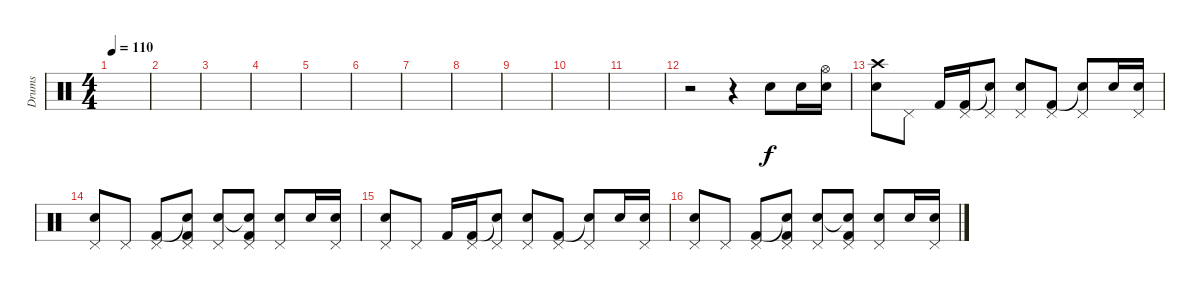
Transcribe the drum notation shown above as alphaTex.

\track ("Drums" "Drums") {instrument percussion}
\staff {score}
\articulation defaults
\ts (4 4)
\tempo 110
\clef neutral
\ks c
|
|
|
|
|
|
|
|
|
|
|
r.2 r.4 "Snare (hit) 2".8 "Snare (hit) 2".16 ("Snare (hit) 2" "Hi-Hat (open)").16 |
("Snare (hit) 2" "Crash high (hit)").8 "Pedal Hi-Hat (hit)".8 "Kick (hit) 2".16 ("Pedal Hi-Hat (hit)" "Kick (hit) 2").16 ("Pedal Hi-Hat (hit)" "Snare (hit)"{t}).8 ("Pedal Hi-Hat (hit)" "Snare (hit) 2").8 ("Pedal Hi-Hat (hit)" "Kick (hit) 2").8 ("Pedal Hi-Hat (hit)" "Snare (hit)"{t}).8 "Snare (hit) 2".16 ("Pedal Hi-Hat (hit)" "Snare (hit) 2").16 |
("Pedal Hi-Hat (hit)" "Snare (hit) 2").8 "Pedal Hi-Hat (hit)".8 ("Pedal Hi-Hat (hit)" "Kick (hit) 2").8 ("Pedal Hi-Hat (hit)" "Snare (hit)"{t} "Kick (hit) 2").8 ("Pedal Hi-Hat (hit)" "Snare (hit) 2").8 ("Pedal Hi-Hat (hit)" "Snare (hit)"{t} "Kick (hit) 2").8 ("Pedal Hi-Hat (hit)" "Snare (hit) 2").8 "Snare (hit) 2".16 ("Pedal Hi-Hat (hit)" "Snare (hit) 2").16 |
("Pedal Hi-Hat (hit)" "Snare (hit) 2").8 "Pedal Hi-Hat (hit)".8 "Kick (hit) 2".16 ("Pedal Hi-Hat (hit)" "Kick (hit) 2").16 ("Pedal Hi-Hat (hit)" "Snare (hit)"{t}).8 ("Pedal Hi-Hat (hit)" "Snare (hit) 2").8 ("Pedal Hi-Hat (hit)" "Kick (hit) 2").8 ("Pedal Hi-Hat (hit)" "Snare (hit)"{t}).8 "Snare (hit) 2".16 ("Pedal Hi-Hat (hit)" "Snare (hit) 2").16 |
("Pedal Hi-Hat (hit)" "Snare (hit) 2").8 "Pedal Hi-Hat (hit)".8 ("Pedal Hi-Hat (hit)" "Kick (hit) 2").8 ("Pedal Hi-Hat (hit)" "Snare (hit)"{t} "Kick (hit) 2").8 ("Pedal Hi-Hat (hit)" "Snare (hit) 2").8 ("Pedal Hi-Hat (hit)" "Snare (hit)"{t} "Kick (hit) 2").8 ("Pedal Hi-Hat (hit)" "Snare (hit) 2").8 "Snare (hit) 2".16 ("Pedal Hi-Hat (hit)" "Snare (hit) 2").16
